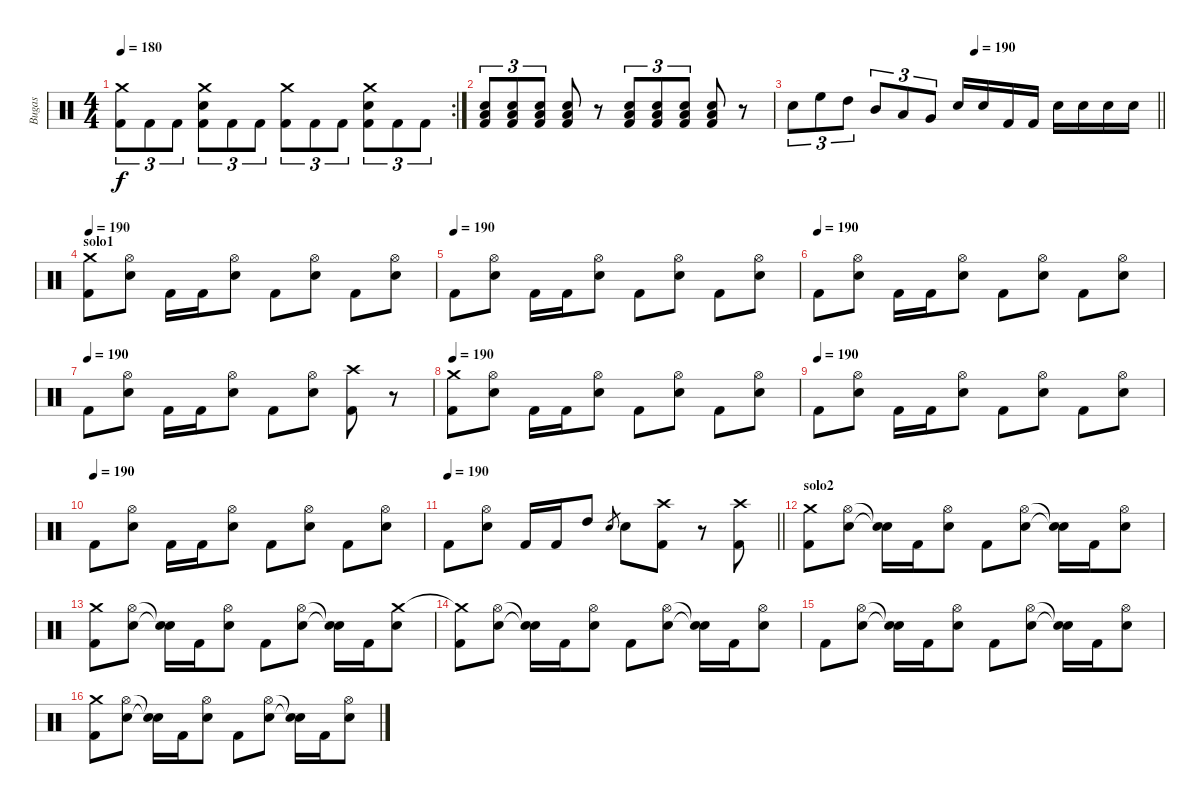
\track ("Bugas" "Bugas") {instrument percussion}
\staff {score}
\articulation defaults
\rc 2
\ts (4 4)
\tempo 180
\clef neutral
\ks c
("Crash medium (hit)" "Kick (hit) 2").8{tu (3 2) dy f} "Kick (hit) 2".8{tu (3 2)} "Kick (hit) 2".8{tu (3 2)} ("Crash medium (hit)" "Electric Snare (hit)" "Kick (hit) 2").8{tu (3 2)} "Kick (hit) 2".8{tu (3 2)} "Kick (hit) 2".8{tu (3 2)} ("Crash medium (hit)" "Kick (hit) 2").8{tu (3 2)} "Kick (hit) 2".8{tu (3 2)} "Kick (hit) 2".8{tu (3 2)} ("Crash medium (hit)" "Electric Snare (hit)" "Kick (hit) 2").8{tu (3 2)} "Kick (hit) 2".8{tu (3 2)} "Kick (hit) 2".8{tu (3 2)} |
("Low Tom (hit)" "Electric Snare (hit)" "Kick (hit) 2").8{tu (3 2)} ("Low Tom (hit)" "Electric Snare (hit)" "Kick (hit) 2").8{tu (3 2)} ("Low Tom (hit)" "Electric Snare (hit)" "Kick (hit) 2").8{tu (3 2)} ("Low Tom (hit)" "Electric Snare (hit)" "Kick (hit) 2").8 r.8 ("Low Tom (hit)" "Electric Snare (hit)" "Kick (hit) 2").8{tu (3 2)} ("Low Tom (hit)" "Electric Snare (hit)" "Kick (hit) 2").8{tu (3 2)} ("Low Tom (hit)" "Electric Snare (hit)" "Kick (hit) 2").8{tu (3 2)} ("Low Tom (hit)" "Electric Snare (hit)" "Kick (hit) 2").8 r.8 |
\tempo (190 0.5)
\barLineRight lightlight "Electric Snare (hit)".8{tu (3 2)} "High Floor Tom (hit)".8{tu (3 2)} "High Tom (hit)".8{tu (3 2)} "Mid Tom (hit)".8{tu (3 2)} "Low Tom (hit)".8{tu (3 2)} "Very Low Tom (hit)".8{tu (3 2)} "Electric Snare (hit)".16 "Electric Snare (hit)".16 "Kick (hit) 2".16 "Kick (hit) 2".16 "Electric Snare (hit)".16 "Electric Snare (hit)".16 "Electric Snare (hit)".16 "Electric Snare (hit)".16
|
\section ("" "solo1")
\tempo 190
("Crash medium (hit)" "Kick (hit) 2").8 ("Hi-Hat (open)" "Electric Snare (hit)").8 "Kick (hit) 2".16 "Kick (hit) 2".16 ("Hi-Hat (open)" "Electric Snare (hit)").8 "Kick (hit) 2".8 ("Hi-Hat (open)" "Electric Snare (hit)").8 "Kick (hit) 2".8 ("Hi-Hat (open)" "Electric Snare (hit)").8 |
\tempo (190)
"Kick (hit) 2".8 ("Hi-Hat (open)" "Electric Snare (hit)").8 "Kick (hit) 2".16 "Kick (hit) 2".16 ("Hi-Hat (open)" "Electric Snare (hit)").8 "Kick (hit) 2".8 ("Hi-Hat (open)" "Electric Snare (hit)").8 "Kick (hit) 2".8 ("Hi-Hat (open)" "Electric Snare (hit)").8 |
\tempo (190)
"Kick (hit) 2".8 ("Hi-Hat (open)" "Electric Snare (hit)").8 "Kick (hit) 2".16 "Kick (hit) 2".16 ("Hi-Hat (open)" "Electric Snare (hit)").8 "Kick (hit) 2".8 ("Hi-Hat (open)" "Electric Snare (hit)").8 "Kick (hit) 2".8 ("Hi-Hat (open)" "Electric Snare (hit)").8 |
\tempo (190)
"Kick (hit) 2".8 ("Hi-Hat (open)" "Electric Snare (hit)").8 "Kick (hit) 2".16 "Kick (hit) 2".16 ("Hi-Hat (open)" "Electric Snare (hit)").8 "Kick (hit) 2".8 ("Hi-Hat (open)" "Electric Snare (hit)").8 ("Crash high (hit)" "Kick (hit) 2").8 r.8 |
\tempo 190
("Crash medium (hit)" "Kick (hit) 2").8 ("Hi-Hat (open)" "Electric Snare (hit)").8 "Kick (hit) 2".16 "Kick (hit) 2".16 ("Hi-Hat (open)" "Electric Snare (hit)").8 "Kick (hit) 2".8 ("Hi-Hat (open)" "Electric Snare (hit)").8 "Kick (hit) 2".8 ("Hi-Hat (open)" "Electric Snare (hit)").8 |
\tempo (190)
"Kick (hit) 2".8 ("Hi-Hat (open)" "Electric Snare (hit)").8 "Kick (hit) 2".16 "Kick (hit) 2".16 ("Hi-Hat (open)" "Electric Snare (hit)").8 "Kick (hit) 2".8 ("Hi-Hat (open)" "Electric Snare (hit)").8 "Kick (hit) 2".8 ("Hi-Hat (open)" "Electric Snare (hit)").8 |
\tempo (190)
"Kick (hit) 2".8 ("Hi-Hat (open)" "Electric Snare (hit)").8 "Kick (hit) 2".16 "Kick (hit) 2".16 ("Hi-Hat (open)" "Electric Snare (hit)").8 "Kick (hit) 2".8 ("Hi-Hat (open)" "Electric Snare (hit)").8 "Kick (hit) 2".8 ("Hi-Hat (open)" "Electric Snare (hit)").8 |
\tempo 190
\barLineRight lightlight "Kick (hit) 2".8
("Hi-Hat (open)" "Electric Snare (hit)").8 "Kick (hit) 2".16 "Kick (hit) 2".16 "High Tom (hit)".8 "Electric Snare (hit)".8{gr} "Electric Snare (hit)".8 ("Crash high (hit)" "Kick (hit) 2").8 r.8 ("Crash high (hit)" "Kick (hit) 2").8 |
\section ("" "solo2")
("Crash medium (hit)" "Kick (hit) 2").8 ("Hi-Hat (open)" "Electric Snare (hit)").8 ("Snare (hit)"{t} "Snare (hit)"{t}).16 "Kick (hit) 2".16 ("Hi-Hat (open)" "Electric Snare (hit)").8 "Kick (hit) 2".8 ("Hi-Hat (open)" "Electric Snare (hit)").8 ("Snare (hit)"{t} "Snare (hit)"{t}).16 "Kick (hit) 2".16 ("Hi-Hat (open)" "Electric Snare (hit)").8 |
("Crash medium (hit)" "Kick (hit) 2").8 ("Hi-Hat (open)" "Electric Snare (hit)").8 ("Snare (hit)"{t} "Snare (hit)"{t}).16 "Kick (hit) 2".16 ("Hi-Hat (open)" "Electric Snare (hit)").8 "Kick (hit) 2".8 ("Hi-Hat (open)" "Electric Snare (hit)").8 ("Snare (hit)"{t} "Snare (hit)"{t}).16 "Kick (hit) 2".16 ("Crash medium (hit)" "Electric Snare (hit)").8 |
("Crash medium (hit)"{t} "Kick (hit) 2").8 ("Hi-Hat (open)" "Electric Snare (hit)").8 ("Snare (hit)"{t} "Snare (hit)"{t}).16 "Kick (hit) 2".16 ("Hi-Hat (open)" "Electric Snare (hit)").8 "Kick (hit) 2".8 ("Hi-Hat (open)" "Electric Snare (hit)").8 ("Snare (hit)"{t} "Snare (hit)"{t}).16 "Kick (hit) 2".16 ("Hi-Hat (open)" "Electric Snare (hit)").8 |
"Kick (hit) 2".8 ("Hi-Hat (open)" "Electric Snare (hit)").8 ("Snare (hit)"{t} "Snare (hit)"{t}).16 "Kick (hit) 2".16 ("Hi-Hat (open)" "Electric Snare (hit)").8 "Kick (hit) 2".8 ("Hi-Hat (open)" "Electric Snare (hit)").8 ("Snare (hit)"{t} "Snare (hit)"{t}).16 "Kick (hit) 2".16 ("Hi-Hat (open)" "Electric Snare (hit)").8 |
("Crash medium (hit)" "Kick (hit) 2").8 ("Hi-Hat (open)" "Electric Snare (hit)").8 ("Snare (hit)"{t} "Snare (hit)"{t}).16 "Kick (hit) 2".16 ("Hi-Hat (open)" "Electric Snare (hit)").8 "Kick (hit) 2".8 ("Hi-Hat (open)" "Electric Snare (hit)").8 ("Snare (hit)"{t} "Snare (hit)"{t}).16 "Kick (hit) 2".16 ("Hi-Hat (open)" "Electric Snare (hit)").8
